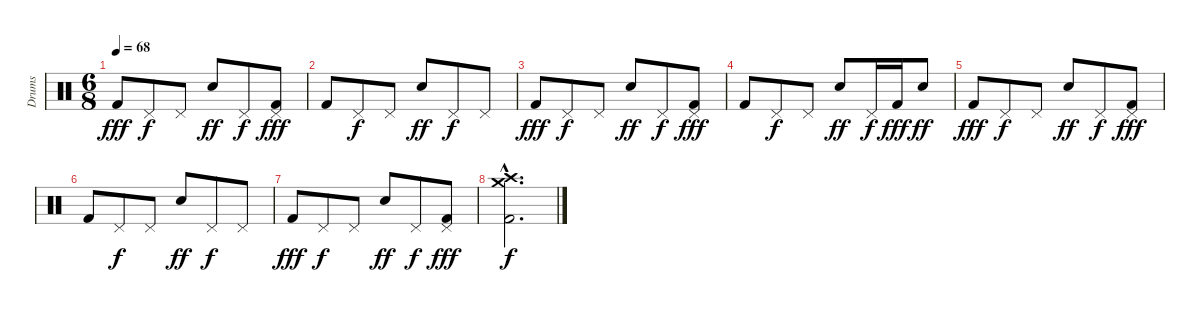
\track ("Drums" "Drums") {instrument percussion}
\staff {score}
\articulation defaults
\ts (6 8)
\tempo 68
\clef neutral
\ks c "Kick (hit) 2".8{dy fff} "Pedal Hi-Hat (hit)".8{dy f} "Pedal Hi-Hat (hit)".8 "Snare (hit) 2".8{dy ff} "Pedal Hi-Hat (hit)".8{dy f}
("Pedal Hi-Hat (hit)" "Kick (hit) 2").8{dy fff} |
"Kick (hit) 2".8 "Pedal Hi-Hat (hit)".8{dy f} "Pedal Hi-Hat (hit)".8 "Snare (hit) 2".8{dy ff} "Pedal Hi-Hat (hit)".8{dy f} "Pedal Hi-Hat (hit)".8 |
"Kick (hit) 2".8{dy fff} "Pedal Hi-Hat (hit)".8{dy f} "Pedal Hi-Hat (hit)".8 "Snare (hit) 2".8{dy ff} "Pedal Hi-Hat (hit)".8{dy f} ("Pedal Hi-Hat (hit)" "Kick (hit) 2").8{dy fff} |
"Kick (hit) 2".8 "Pedal Hi-Hat (hit)".8{dy f} "Pedal Hi-Hat (hit)".8 "Snare (hit) 2".8{dy ff} "Pedal Hi-Hat (hit)".16{dy f} "Kick (hit) 2".16{dy fff} "Snare (hit) 2".8{dy ff} |
"Kick (hit) 2".8{dy fff} "Pedal Hi-Hat (hit)".8{dy f} "Pedal Hi-Hat (hit)".8 "Snare (hit) 2".8{dy ff} "Pedal Hi-Hat (hit)".8{dy f} ("Pedal Hi-Hat (hit)" "Kick (hit) 2").8{dy fff} |
"Kick (hit) 2".8 "Pedal Hi-Hat (hit)".8{dy f} "Pedal Hi-Hat (hit)".8 "Snare (hit) 2".8{dy ff} "Pedal Hi-Hat (hit)".8{dy f} "Pedal Hi-Hat (hit)".8 |
"Kick (hit) 2".8{dy fff} "Pedal Hi-Hat (hit)".8{dy f} "Pedal Hi-Hat (hit)".8 "Snare (hit) 2".8{dy ff} "Pedal Hi-Hat (hit)".8{dy f} ("Pedal Hi-Hat (hit)" "Kick (hit) 2").8{dy fff} |
("Crash high (hit)"{hac} "Crash medium (hit)"{hac} "Kick (hit) 2"{hac}).2{d dy f}
